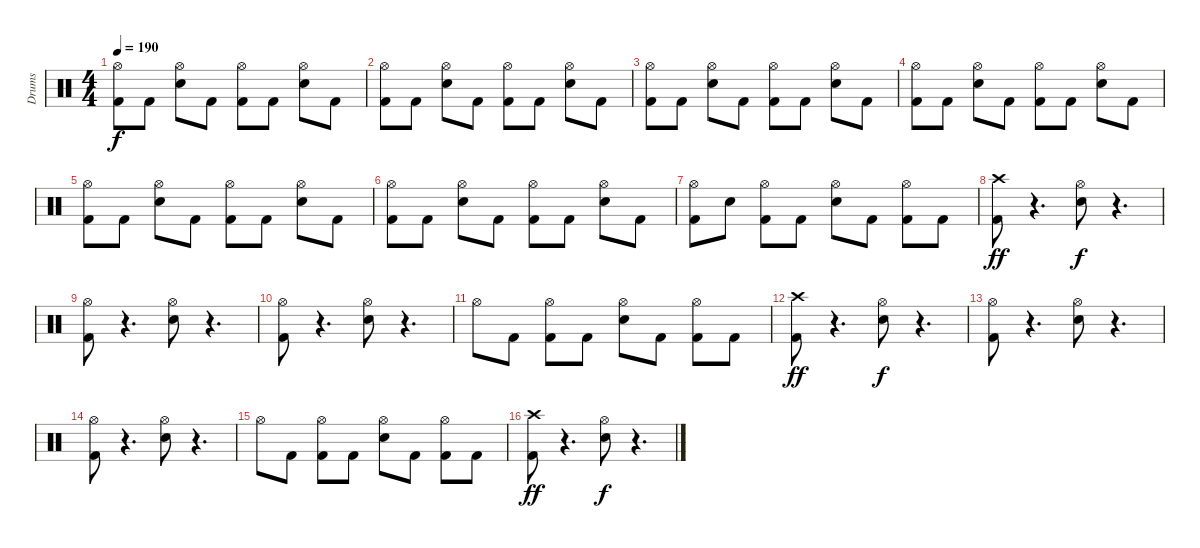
\track ("Drums" "Drums") {instrument percussion}
\staff {score}
\articulation defaults
\ts (4 4)
\tempo 190
\clef neutral
\ks c
("Kick (hit) 2" "Hi-Hat (open)").8{dy f} "Kick (hit) 2".8 ("Snare (hit) 2" "Hi-Hat (open)").8 "Kick (hit) 2".8 ("Kick (hit) 2" "Hi-Hat (open)").8 "Kick (hit) 2".8 ("Snare (hit) 2" "Hi-Hat (open)").8 "Kick (hit) 2".8 |
("Kick (hit) 2" "Hi-Hat (open)").8 "Kick (hit) 2".8 ("Snare (hit) 2" "Hi-Hat (open)").8 "Kick (hit) 2".8 ("Kick (hit) 2" "Hi-Hat (open)").8 "Kick (hit) 2".8 ("Snare (hit) 2" "Hi-Hat (open)").8 "Kick (hit) 2".8 |
("Kick (hit) 2" "Hi-Hat (open)").8 "Kick (hit) 2".8 ("Snare (hit) 2" "Hi-Hat (open)").8 "Kick (hit) 2".8 ("Kick (hit) 2" "Hi-Hat (open)").8 "Kick (hit) 2".8 ("Snare (hit) 2" "Hi-Hat (open)").8 "Kick (hit) 2".8 |
("Kick (hit) 2" "Hi-Hat (open)").8 "Kick (hit) 2".8 ("Snare (hit) 2" "Hi-Hat (open)").8 "Kick (hit) 2".8 ("Kick (hit) 2" "Hi-Hat (open)").8 "Kick (hit) 2".8 ("Snare (hit) 2" "Hi-Hat (open)").8 "Kick (hit) 2".8 |
("Kick (hit) 2" "Hi-Hat (open)").8 "Kick (hit) 2".8 ("Snare (hit) 2" "Hi-Hat (open)").8 "Kick (hit) 2".8 ("Kick (hit) 2" "Hi-Hat (open)").8 "Kick (hit) 2".8 ("Snare (hit) 2" "Hi-Hat (open)").8 "Kick (hit) 2".8 |
("Kick (hit) 2" "Hi-Hat (open)").8 "Kick (hit) 2".8 ("Snare (hit) 2" "Hi-Hat (open)").8 "Kick (hit) 2".8 ("Kick (hit) 2" "Hi-Hat (open)").8 "Kick (hit) 2".8 ("Snare (hit) 2" "Hi-Hat (open)").8 "Kick (hit) 2".8 |
("Kick (hit) 2" "Hi-Hat (open)").8 "Snare (hit) 2".8 ("Kick (hit) 2" "Hi-Hat (open)").8 "Kick (hit) 2".8 ("Snare (hit) 2" "Hi-Hat (open)").8 "Kick (hit) 2".8 ("Kick (hit) 2" "Hi-Hat (open)").8 "Kick (hit) 2".8 |
("Kick (hit) 2" "Crash high (hit)").8{dy ff} r.4{d} ("Snare (hit) 2" "Hi-Hat (open)").8{dy f} r.4{d} |
("Kick (hit) 2" "Hi-Hat (open)").8 r.4{d} ("Snare (hit) 2" "Hi-Hat (open)").8 r.4{d} |
("Kick (hit) 2" "Hi-Hat (open)").8 r.4{d} ("Snare (hit) 2" "Hi-Hat (open)").8 r.4{d} |
"Hi-Hat (open)".8 "Kick (hit) 2".8 ("Kick (hit) 2" "Hi-Hat (open)").8 "Kick (hit) 2".8 ("Snare (hit) 2" "Hi-Hat (open)").8 "Kick (hit) 2".8 ("Kick (hit) 2" "Hi-Hat (open)").8 "Kick (hit) 2".8 |
("Kick (hit) 2" "Crash high (hit)").8{dy ff} r.4{d} ("Snare (hit) 2" "Hi-Hat (open)").8{dy f} r.4{d} |
("Kick (hit) 2" "Hi-Hat (open)").8 r.4{d} ("Snare (hit) 2" "Hi-Hat (open)").8 r.4{d} |
("Kick (hit) 2" "Hi-Hat (open)").8 r.4{d} ("Snare (hit) 2" "Hi-Hat (open)").8 r.4{d} |
"Hi-Hat (open)".8 "Kick (hit) 2".8 ("Kick (hit) 2" "Hi-Hat (open)").8 "Kick (hit) 2".8 ("Snare (hit) 2" "Hi-Hat (open)").8 "Kick (hit) 2".8 ("Kick (hit) 2" "Hi-Hat (open)").8 "Kick (hit) 2".8 |
("Kick (hit) 2" "Crash high (hit)").8{dy ff} r.4{d} ("Snare (hit) 2" "Hi-Hat (open)").8{dy f} r.4{d}
